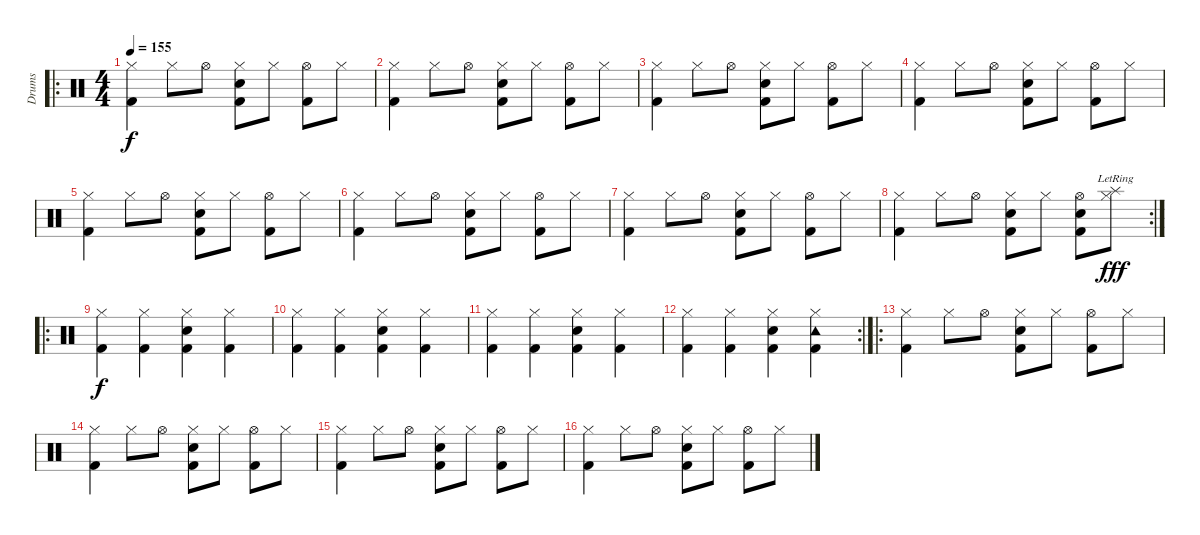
\track ("Drums" "Drums") {instrument percussion}
\staff {score}
\articulation defaults
\ro
\ts (4 4)
\tempo 155
\clef neutral
\ks c
("Hi-Hat (closed)" "Kick (hit) 2").4{dy f} "Hi-Hat (closed)".8 "Hi-Hat (open)".8 ("Hi-Hat (closed)" "Snare (hit) 2" "Kick (hit) 2").8 "Hi-Hat (closed)".8 ("Hi-Hat (open)" "Kick (hit) 2").8 "Hi-Hat (closed)".8 |
("Hi-Hat (closed)" "Kick (hit) 2").4 "Hi-Hat (closed)".8 "Hi-Hat (open)".8 ("Hi-Hat (closed)" "Snare (hit) 2" "Kick (hit) 2").8 "Hi-Hat (closed)".8 ("Hi-Hat (open)" "Kick (hit) 2").8 "Hi-Hat (closed)".8 |
("Hi-Hat (closed)" "Kick (hit) 2").4 "Hi-Hat (closed)".8 "Hi-Hat (open)".8 ("Hi-Hat (closed)" "Snare (hit) 2" "Kick (hit) 2").8 "Hi-Hat (closed)".8 ("Hi-Hat (open)" "Kick (hit) 2").8 "Hi-Hat (closed)".8 |
("Hi-Hat (closed)" "Kick (hit) 2").4 "Hi-Hat (closed)".8 "Hi-Hat (open)".8 ("Hi-Hat (closed)" "Snare (hit) 2" "Kick (hit) 2").8 "Hi-Hat (closed)".8 ("Hi-Hat (open)" "Kick (hit) 2").8 "Hi-Hat (closed)".8 |
("Hi-Hat (closed)" "Kick (hit) 2").4 "Hi-Hat (closed)".8 "Hi-Hat (open)".8 ("Hi-Hat (closed)" "Snare (hit) 2" "Kick (hit) 2").8 "Hi-Hat (closed)".8 ("Hi-Hat (open)" "Kick (hit) 2").8 "Hi-Hat (closed)".8 |
("Hi-Hat (closed)" "Kick (hit) 2").4 "Hi-Hat (closed)".8 "Hi-Hat (open)".8 ("Hi-Hat (closed)" "Snare (hit) 2" "Kick (hit) 2").8 "Hi-Hat (closed)".8 ("Hi-Hat (open)" "Kick (hit) 2").8 "Hi-Hat (closed)".8 |
("Hi-Hat (closed)" "Kick (hit) 2").4 "Hi-Hat (closed)".8 "Hi-Hat (open)".8 ("Hi-Hat (closed)" "Snare (hit) 2" "Kick (hit) 2").8 "Hi-Hat (closed)".8 ("Hi-Hat (open)" "Kick (hit) 2").8 "Hi-Hat (closed)".8 |
\rc 2
("Hi-Hat (closed)" "Kick (hit) 2").4 "Hi-Hat (closed)".8 "Hi-Hat (open)".8 ("Hi-Hat (closed)" "Snare (hit) 2" "Kick (hit) 2").8 "Hi-Hat (closed)".8 ("Hi-Hat (open)" "Snare (hit) 2" "Kick (hit) 2").8 ("Splash (hit)"{lr} "Hi-Hat (closed)").8{dy fff} |
\ro
("Hi-Hat (closed)" "Kick (hit) 2").4{dy f} ("Hi-Hat (closed)" "Kick (hit) 2").4 ("Hi-Hat (closed)" "Snare (hit) 2" "Kick (hit) 2").4 ("Hi-Hat (closed)" "Kick (hit) 2").4 |
("Hi-Hat (closed)" "Kick (hit) 2").4 ("Hi-Hat (closed)" "Kick (hit) 2").4 ("Hi-Hat (closed)" "Snare (hit) 2" "Kick (hit) 2").4 ("Hi-Hat (closed)" "Kick (hit) 2").4 |
("Hi-Hat (closed)" "Kick (hit) 2").4 ("Hi-Hat (closed)" "Kick (hit) 2").4 ("Hi-Hat (closed)" "Snare (hit) 2" "Kick (hit) 2").4 ("Hi-Hat (closed)" "Kick (hit) 2").4 |
\rc 2
("Hi-Hat (closed)" "Kick (hit) 2").4 ("Hi-Hat (closed)" "Kick (hit) 2").4 ("Hi-Hat (closed)" "Snare (hit) 2" "Kick (hit) 2").4 ("Tambourine (hit)" "Hi-Hat (closed)" "Kick (hit) 2").4 |
\ro
("Hi-Hat (closed)" "Kick (hit) 2").4 "Hi-Hat (closed)".8 "Hi-Hat (open)".8 ("Hi-Hat (closed)" "Snare (hit) 2" "Kick (hit) 2").8 "Hi-Hat (closed)".8 ("Hi-Hat (open)" "Kick (hit) 2").8 "Hi-Hat (closed)".8 |
("Hi-Hat (closed)" "Kick (hit) 2").4 "Hi-Hat (closed)".8 "Hi-Hat (open)".8 ("Hi-Hat (closed)" "Snare (hit) 2" "Kick (hit) 2").8 "Hi-Hat (closed)".8 ("Hi-Hat (open)" "Kick (hit) 2").8 "Hi-Hat (closed)".8 |
("Hi-Hat (closed)" "Kick (hit) 2").4 "Hi-Hat (closed)".8 "Hi-Hat (open)".8 ("Hi-Hat (closed)" "Snare (hit) 2" "Kick (hit) 2").8 "Hi-Hat (closed)".8 ("Hi-Hat (open)" "Kick (hit) 2").8 "Hi-Hat (closed)".8 |
("Hi-Hat (closed)" "Kick (hit) 2").4 "Hi-Hat (closed)".8 "Hi-Hat (open)".8 ("Hi-Hat (closed)" "Snare (hit) 2" "Kick (hit) 2").8 "Hi-Hat (closed)".8 ("Hi-Hat (open)" "Kick (hit) 2").8 "Hi-Hat (closed)".8
